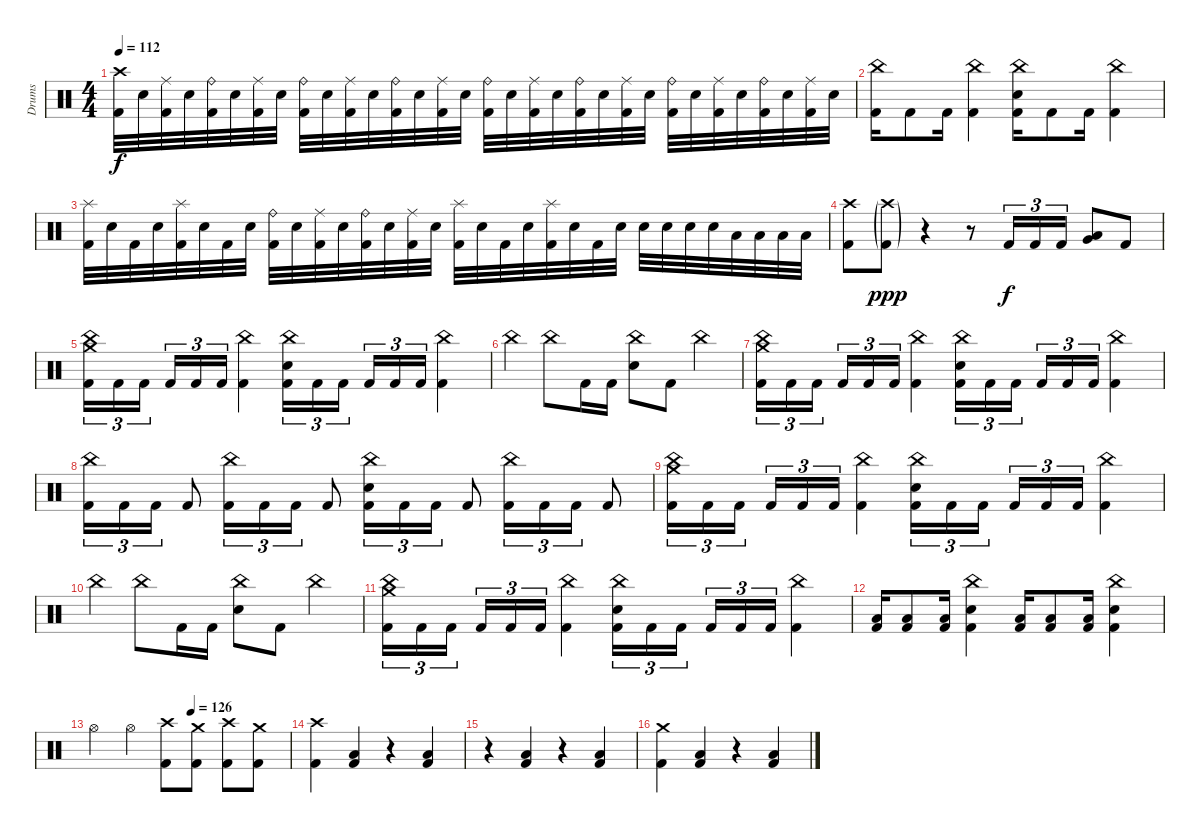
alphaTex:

\track ("Drums" "Drums") {instrument percussion}
\staff {score}
\articulation defaults
\ts (4 4)
\tempo 112
\clef neutral
\ks c
("Crash high (hit)" "Kick (hit) 2").32{dy f} "Electric Snare (hit)".32 ("Ride (middle)" "Kick (hit) 2").32 "Electric Snare (hit)".32 ("Ride (bell)" "Kick (hit) 2").32 "Electric Snare (hit)".32 ("Ride (middle)" "Kick (hit) 2").32 "Electric Snare (hit)".32 ("Ride (bell)" "Kick (hit) 2").32 "Electric Snare (hit)".32 ("Ride (middle)" "Kick (hit) 2").32 "Electric Snare (hit)".32 ("Ride (bell)" "Kick (hit) 2").32 "Electric Snare (hit)".32 ("Ride (middle)" "Kick (hit) 2").32 "Electric Snare (hit)".32 ("Ride (bell)" "Kick (hit) 2").32 "Electric Snare (hit)".32 ("Ride (middle)" "Kick (hit) 2").32 "Electric Snare (hit)".32 ("Ride (bell)" "Kick (hit) 2").32 "Electric Snare (hit)".32 ("Ride (middle)" "Kick (hit) 2").32 "Electric Snare (hit)".32 ("Ride (bell)" "Kick (hit) 2").32 "Electric Snare (hit)".32 ("Ride (middle)" "Kick (hit) 2").32 "Electric Snare (hit)".32 ("Ride (bell)" "Kick (hit) 2").32 "Electric Snare (hit)".32 ("Ride (middle)" "Kick (hit) 2").32 "Electric Snare (hit)".32 |
("China (hit)" "Kick (hit) 2").16 "Kick (hit) 2".8 "Kick (hit) 2".16 ("China (hit)" "Kick (hit) 2").4 ("China (hit)" "Electric Snare (hit)" "Kick (hit) 2").16 "Kick (hit) 2".8 "Kick (hit) 2".16 ("China (hit)" "Kick (hit) 2").4 |
("Splash (hit)" "Kick (hit) 2").32 "Electric Snare (hit)".32 "Kick (hit) 2".32 "Electric Snare (hit)".32 ("Splash (hit)" "Kick (hit) 2").32 "Electric Snare (hit)".32 "Kick (hit) 2".32 "Electric Snare (hit)".32 ("Ride (bell)" "Kick (hit) 2").32 "Electric Snare (hit)".32 ("Ride (middle)" "Kick (hit) 2").32 "Electric Snare (hit)".32 ("Ride (bell)" "Kick (hit) 2").32 "Electric Snare (hit)".32 ("Ride (middle)" "Kick (hit) 2").32 "Electric Snare (hit)".32 ("Splash (hit)" "Kick (hit) 2").32 "Electric Snare (hit)".32 "Kick (hit) 2".32 "Electric Snare (hit)".32 ("Splash (hit)" "Kick (hit) 2").32 "Electric Snare (hit)".32 "Kick (hit) 2".32 "Electric Snare (hit)".32 "Electric Snare (hit)".32 "Electric Snare (hit)".32 "Electric Snare (hit)".32 "Electric Snare (hit)".32 "Low Tom (hit)".32 "Low Tom (hit)".32 "Low Tom (hit)".32 "Low Tom (hit)".32 |
("Crash high (hit)" "Kick (hit) 2").8 ("Crash high (hit)"{g} "Kick (hit) 2"{g}).8{dy ppp} r.4 r.8 "Kick (hit) 2".16{tu (3 2) dy f} "Kick (hit) 2".16{tu (3 2)} "Kick (hit) 2".16{tu (3 2)} ("Very Low Tom (hit)" "Low Tom (hit)").8 "Kick (hit) 2".8 |
("Crash medium (hit)" "China (hit)" "Kick (hit) 2").16{tu (3 2)} "Kick (hit) 2".16{tu (3 2)} "Kick (hit) 2".16{tu (3 2) beam splitsecondary} "Kick (hit) 2".16{tu (3 2)} "Kick (hit) 2".16{tu (3 2)} "Kick (hit) 2".16{tu (3 2)} ("China (hit)" "Kick (hit) 2").4 ("China (hit)" "Electric Snare (hit)" "Kick (hit) 2").16{tu (3 2)} "Kick (hit) 2".16{tu (3 2)} "Kick (hit) 2".16{tu (3 2) beam splitsecondary} "Kick (hit) 2".16{tu (3 2)} "Kick (hit) 2".16{tu (3 2)} "Kick (hit) 2".16{tu (3 2)} ("China (hit)" "Kick (hit) 2").4 |
"China (hit)".4 "China (hit)".8 "Kick (hit) 2".16 "Kick (hit) 2".16 ("China (hit)" "Electric Snare (hit)").8 "Kick (hit) 2".8 "China (hit)".4 |
("Crash medium (hit)" "China (hit)" "Kick (hit) 2").16{tu (3 2)} "Kick (hit) 2".16{tu (3 2)} "Kick (hit) 2".16{tu (3 2) beam splitsecondary} "Kick (hit) 2".16{tu (3 2)} "Kick (hit) 2".16{tu (3 2)} "Kick (hit) 2".16{tu (3 2)} ("China (hit)" "Kick (hit) 2").4 ("China (hit)" "Electric Snare (hit)" "Kick (hit) 2").16{tu (3 2)} "Kick (hit) 2".16{tu (3 2)} "Kick (hit) 2".16{tu (3 2) beam splitsecondary} "Kick (hit) 2".16{tu (3 2)} "Kick (hit) 2".16{tu (3 2)} "Kick (hit) 2".16{tu (3 2)} ("China (hit)" "Kick (hit) 2").4 |
("China (hit)" "Kick (hit) 2").16{tu (3 2)} "Kick (hit) 2".16{tu (3 2)} "Kick (hit) 2".16{tu (3 2)} "Kick (hit) 2".8 ("China (hit)" "Kick (hit) 2").16{tu (3 2)} "Kick (hit) 2".16{tu (3 2)} "Kick (hit) 2".16{tu (3 2)} "Kick (hit) 2".8 ("China (hit)" "Electric Snare (hit)" "Kick (hit) 2").16{tu (3 2)} "Kick (hit) 2".16{tu (3 2)} "Kick (hit) 2".16{tu (3 2)} "Kick (hit) 2".8 ("China (hit)" "Kick (hit) 2").16{tu (3 2)} "Kick (hit) 2".16{tu (3 2)} "Kick (hit) 2".16{tu (3 2)} "Kick (hit) 2".8 |
("Crash medium (hit)" "China (hit)" "Kick (hit) 2").16{tu (3 2)} "Kick (hit) 2".16{tu (3 2)} "Kick (hit) 2".16{tu (3 2) beam splitsecondary} "Kick (hit) 2".16{tu (3 2)} "Kick (hit) 2".16{tu (3 2)} "Kick (hit) 2".16{tu (3 2)} ("China (hit)" "Kick (hit) 2").4 ("China (hit)" "Electric Snare (hit)" "Kick (hit) 2").16{tu (3 2)} "Kick (hit) 2".16{tu (3 2)} "Kick (hit) 2".16{tu (3 2) beam splitsecondary} "Kick (hit) 2".16{tu (3 2)} "Kick (hit) 2".16{tu (3 2)} "Kick (hit) 2".16{tu (3 2)} ("China (hit)" "Kick (hit) 2").4 |
"China (hit)".4 "China (hit)".8 "Kick (hit) 2".16 "Kick (hit) 2".16 ("China (hit)" "Electric Snare (hit)").8 "Kick (hit) 2".8 "China (hit)".4 |
("Crash medium (hit)" "China (hit)" "Kick (hit) 2").16{tu (3 2)} "Kick (hit) 2".16{tu (3 2)} "Kick (hit) 2".16{tu (3 2) beam splitsecondary} "Kick (hit) 2".16{tu (3 2)} "Kick (hit) 2".16{tu (3 2)} "Kick (hit) 2".16{tu (3 2)} ("China (hit)" "Kick (hit) 2").4 ("China (hit)" "Electric Snare (hit)" "Kick (hit) 2").16{tu (3 2)} "Kick (hit) 2".16{tu (3 2)} "Kick (hit) 2".16{tu (3 2) beam splitsecondary} "Kick (hit) 2".16{tu (3 2)} "Kick (hit) 2".16{tu (3 2)} "Kick (hit) 2".16{tu (3 2)} ("China (hit)" "Kick (hit) 2").4 |
("Low Floor Tom (hit)" "Kick (hit) 2").16 ("Low Floor Tom (hit)" "Kick (hit) 2").8 ("Low Floor Tom (hit)" "Kick (hit) 2").16 ("China (hit)" "Electric Snare (hit)" "Kick (hit) 2").4 ("Low Floor Tom (hit)" "Kick (hit) 2").16 ("Low Floor Tom (hit)" "Kick (hit) 2").8 ("Low Floor Tom (hit)" "Kick (hit) 2").16 ("China (hit)" "Electric Snare (hit)" "Kick (hit) 2").4 |
\tempo (126 0.5)
"Hi-Hat (open)".4 "Hi-Hat (open)".4 ("Crash high (hit)" "Kick (hit) 2").8 ("Crash medium (hit)" "Kick (hit) 2").8 ("Crash high (hit)" "Kick (hit) 2").8 ("Crash medium (hit)" "Kick (hit) 2").8 |
("Crash high (hit)" "Kick (hit) 2").4 ("Low Floor Tom (hit)" "Kick (hit) 2").4 r.4 ("Low Floor Tom (hit)" "Kick (hit) 2").4 |
r.4 ("Low Floor Tom (hit)" "Kick (hit) 2").4 r.4 ("Low Floor Tom (hit)" "Kick (hit) 2").4 |
("Crash medium (hit)" "Kick (hit) 2").4 ("Low Floor Tom (hit)" "Kick (hit) 2").4 r.4 ("Low Floor Tom (hit)" "Kick (hit) 2").4
